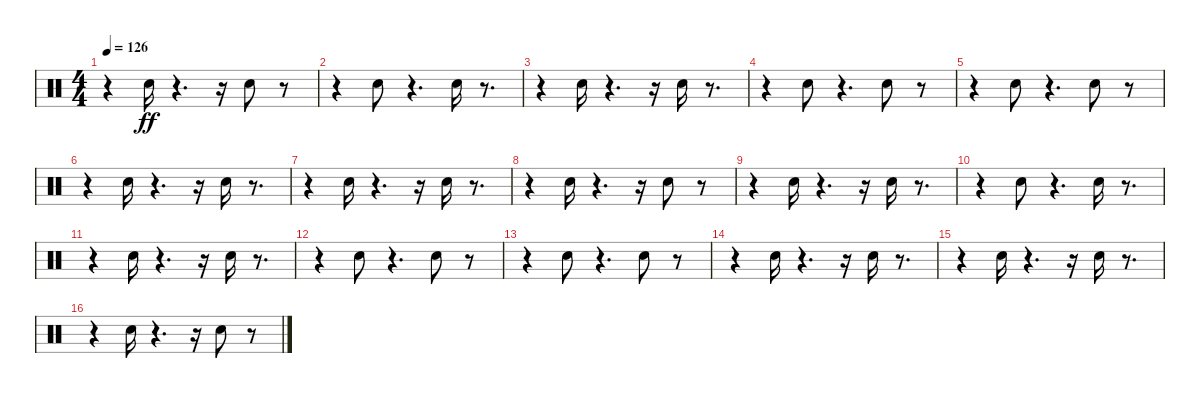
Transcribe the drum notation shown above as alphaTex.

\track "" {instrument percussion}
\staff {score}
\articulation defaults
\ts (4 4)
\tempo 126
\clef neutral
\ks c
r.4{dy ff} "Snare (hit) 2".16 r.4{d} r.16 "Snare (hit) 2".8 r.8 |
r.4 "Snare (hit) 2".8 r.4{d} "Snare (hit) 2".16 r.8{d} |
r.4 "Snare (hit) 2".16 r.4{d} r.16 "Snare (hit) 2".16 r.8{d} |
r.4 "Snare (hit) 2".8 r.4{d} "Snare (hit) 2".8 r.8 |
r.4 "Snare (hit) 2".8 r.4{d} "Snare (hit) 2".8 r.8 |
r.4 "Snare (hit) 2".16 r.4{d} r.16 "Snare (hit) 2".16 r.8{d} |
r.4 "Snare (hit) 2".16 r.4{d} r.16 "Snare (hit) 2".16 r.8{d} |
r.4 "Snare (hit) 2".16 r.4{d} r.16 "Snare (hit) 2".8 r.8 |
r.4 "Snare (hit) 2".16 r.4{d} r.16 "Snare (hit) 2".16 r.8{d} |
r.4 "Snare (hit) 2".8 r.4{d} "Snare (hit) 2".16 r.8{d} |
r.4 "Snare (hit) 2".16 r.4{d} r.16 "Snare (hit) 2".16 r.8{d} |
r.4 "Snare (hit) 2".8 r.4{d} "Snare (hit) 2".8 r.8 |
r.4 "Snare (hit) 2".8 r.4{d} "Snare (hit) 2".8 r.8 |
r.4 "Snare (hit) 2".16 r.4{d} r.16 "Snare (hit) 2".16 r.8{d} |
r.4 "Snare (hit) 2".16 r.4{d} r.16 "Snare (hit) 2".16 r.8{d} |
r.4 "Snare (hit) 2".16 r.4{d} r.16 "Snare (hit) 2".8 r.8
